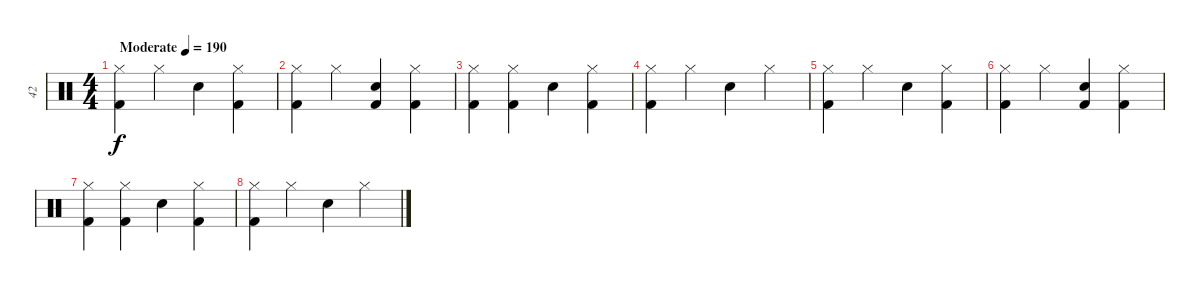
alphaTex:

\track ("42" "42") {instrument percussion}
\staff {score}
\articulation defaults
\ts (4 4)
\tempo (190 "Moderate")
\clef neutral
\ks c
("Hi-Hat (closed)" "Kick (hit) 2").4{dy f} "Hi-Hat (closed)".4 "Electric Snare (hit)".4 ("Hi-Hat (closed)" "Kick (hit) 2").4 |
("Hi-Hat (closed)" "Kick (hit) 2").4 "Hi-Hat (closed)".4 ("Electric Snare (hit)" "Kick (hit) 2").4 ("Hi-Hat (closed)" "Kick (hit) 2").4 |
("Hi-Hat (closed)" "Kick (hit) 2").4 ("Hi-Hat (closed)" "Kick (hit) 2").4 "Electric Snare (hit)".4 ("Hi-Hat (closed)" "Kick (hit) 2").4 |
("Hi-Hat (closed)" "Kick (hit) 2").4 "Hi-Hat (closed)".4 "Electric Snare (hit)".4 "Hi-Hat (closed)".4 |
("Hi-Hat (closed)" "Kick (hit) 2").4 "Hi-Hat (closed)".4 "Electric Snare (hit)".4 ("Hi-Hat (closed)" "Kick (hit) 2").4 |
("Hi-Hat (closed)" "Kick (hit) 2").4 "Hi-Hat (closed)".4 ("Electric Snare (hit)" "Kick (hit) 2").4 ("Hi-Hat (closed)" "Kick (hit) 2").4 |
("Hi-Hat (closed)" "Kick (hit) 2").4 ("Hi-Hat (closed)" "Kick (hit) 2").4 "Electric Snare (hit)".4 ("Hi-Hat (closed)" "Kick (hit) 2").4 |
("Hi-Hat (closed)" "Kick (hit) 2").4 "Hi-Hat (closed)".4 "Electric Snare (hit)".4 "Hi-Hat (closed)".4
